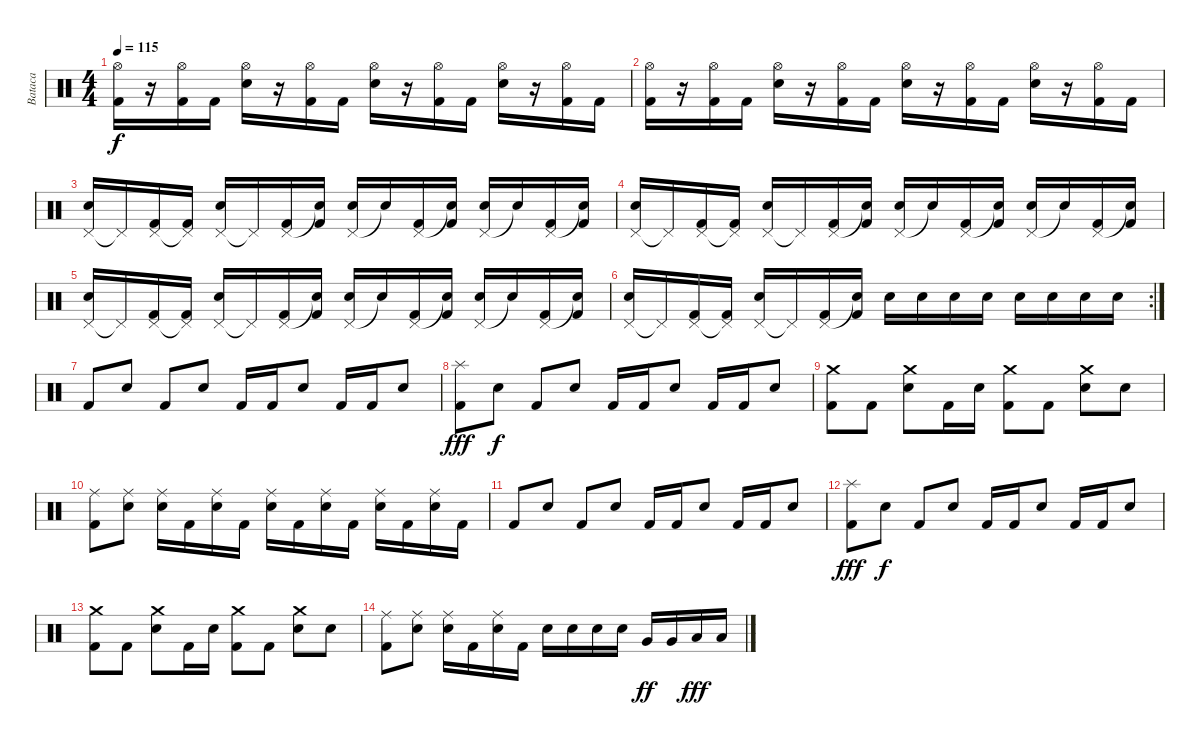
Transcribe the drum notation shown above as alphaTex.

\track ("Bataca" "Bataca") {instrument percussion}
\staff {score}
\articulation defaults
\ts (4 4)
\tempo 115
\clef neutral
\ks c
("Hi-Hat (open)" "Kick (hit) 2").16{dy f} r.16 ("Hi-Hat (open)" "Kick (hit) 2").16 "Kick (hit) 2".16 ("Hi-Hat (open)" "Electric Snare (hit)").16 r.16 ("Hi-Hat (open)" "Kick (hit) 2").16 "Kick (hit) 2".16 ("Hi-Hat (open)" "Electric Snare (hit)").16 r.16 ("Hi-Hat (open)" "Kick (hit) 2").16 "Kick (hit) 2".16 ("Hi-Hat (open)" "Electric Snare (hit)").16 r.16 ("Hi-Hat (open)" "Kick (hit) 2").16 "Kick (hit) 2".16 |
("Hi-Hat (open)" "Kick (hit) 2").16 r.16 ("Hi-Hat (open)" "Kick (hit) 2").16 "Kick (hit) 2".16 ("Hi-Hat (open)" "Electric Snare (hit)").16 r.16 ("Hi-Hat (open)" "Kick (hit) 2").16 "Kick (hit) 2".16 ("Hi-Hat (open)" "Electric Snare (hit)").16 r.16 ("Hi-Hat (open)" "Kick (hit) 2").16 "Kick (hit) 2".16 ("Hi-Hat (open)" "Electric Snare (hit)").16 r.16 ("Hi-Hat (open)" "Kick (hit) 2").16 "Kick (hit) 2".16 |
("Pedal Hi-Hat (hit)" "Electric Snare (hit)").16 "Pedal Hi-Hat (hit)"{t}.16 ("Pedal Hi-Hat (hit)" "Kick (hit) 2").16 ("Pedal Hi-Hat (hit)"{t} "Kick (hit) 2").16 ("Pedal Hi-Hat (hit)" "Electric Snare (hit)").16 "Pedal Hi-Hat (hit)"{t}.16 ("Pedal Hi-Hat (hit)" "Kick (hit) 2").16 ("Snare (hit)"{t} "Kick (hit) 2").16 ("Pedal Hi-Hat (hit)" "Electric Snare (hit)").16 "Snare (hit)"{t}.16 ("Pedal Hi-Hat (hit)" "Kick (hit) 2").16 ("Snare (hit)"{t} "Kick (hit) 2").16 ("Pedal Hi-Hat (hit)" "Electric Snare (hit)").16 "Snare (hit)"{t}.16 ("Pedal Hi-Hat (hit)" "Kick (hit) 2").16 ("Snare (hit)"{t} "Kick (hit) 2").16 |
("Pedal Hi-Hat (hit)" "Electric Snare (hit)").16 "Pedal Hi-Hat (hit)"{t}.16 ("Pedal Hi-Hat (hit)" "Kick (hit) 2").16 ("Pedal Hi-Hat (hit)"{t} "Kick (hit) 2").16 ("Pedal Hi-Hat (hit)" "Electric Snare (hit)").16 "Pedal Hi-Hat (hit)"{t}.16 ("Pedal Hi-Hat (hit)" "Kick (hit) 2").16 ("Snare (hit)"{t} "Kick (hit) 2").16 ("Pedal Hi-Hat (hit)" "Electric Snare (hit)").16 "Snare (hit)"{t}.16 ("Pedal Hi-Hat (hit)" "Kick (hit) 2").16 ("Snare (hit)"{t} "Kick (hit) 2").16 ("Pedal Hi-Hat (hit)" "Electric Snare (hit)").16 "Snare (hit)"{t}.16 ("Pedal Hi-Hat (hit)" "Kick (hit) 2").16 ("Snare (hit)"{t} "Kick (hit) 2").16 |
("Pedal Hi-Hat (hit)" "Electric Snare (hit)").16 "Pedal Hi-Hat (hit)"{t}.16 ("Pedal Hi-Hat (hit)" "Kick (hit) 2").16 ("Pedal Hi-Hat (hit)"{t} "Kick (hit) 2").16 ("Pedal Hi-Hat (hit)" "Electric Snare (hit)").16 "Pedal Hi-Hat (hit)"{t}.16 ("Pedal Hi-Hat (hit)" "Kick (hit) 2").16 ("Snare (hit)"{t} "Kick (hit) 2").16 ("Pedal Hi-Hat (hit)" "Electric Snare (hit)").16 "Snare (hit)"{t}.16 ("Pedal Hi-Hat (hit)" "Kick (hit) 2").16 ("Snare (hit)"{t} "Kick (hit) 2").16 ("Pedal Hi-Hat (hit)" "Electric Snare (hit)").16 "Snare (hit)"{t}.16 ("Pedal Hi-Hat (hit)" "Kick (hit) 2").16 ("Snare (hit)"{t} "Kick (hit) 2").16 |
\rc 2
("Pedal Hi-Hat (hit)" "Electric Snare (hit)").16 "Pedal Hi-Hat (hit)"{t}.16 ("Pedal Hi-Hat (hit)" "Kick (hit) 2").16 ("Pedal Hi-Hat (hit)"{t} "Kick (hit) 2").16 ("Pedal Hi-Hat (hit)" "Electric Snare (hit)").16 "Pedal Hi-Hat (hit)"{t}.16 ("Pedal Hi-Hat (hit)" "Kick (hit) 2").16 ("Snare (hit)"{t} "Kick (hit) 2").16 "Electric Snare (hit)".16 "Electric Snare (hit)".16 "Electric Snare (hit)".16 "Electric Snare (hit)".16 "Electric Snare (hit)".16 "Electric Snare (hit)".16 "Electric Snare (hit)".16 "Electric Snare (hit)".16 |
"Kick (hit) 2".8 "Electric Snare (hit)".8 "Kick (hit) 2".8 "Electric Snare (hit)".8 "Kick (hit) 2".16 "Kick (hit) 2".16 "Electric Snare (hit)".8 "Kick (hit) 2".16 "Kick (hit) 2".16 "Electric Snare (hit)".8 |
("Splash (hit)" "Kick (hit) 2").8{dy fff} "Electric Snare (hit)".8{dy f} "Kick (hit) 2".8 "Electric Snare (hit)".8 "Kick (hit) 2".16 "Kick (hit) 2".16 "Electric Snare (hit)".8 "Kick (hit) 2".16 "Kick (hit) 2".16 "Electric Snare (hit)".8 |
("Crash medium (hit)" "Kick (hit) 2").8 "Kick (hit) 2".8 ("Crash medium (hit)" "Electric Snare (hit)").8 "Kick (hit) 2".16 "Electric Snare (hit)".16 ("Crash medium (hit)" "Kick (hit) 2").8 "Kick (hit) 2".8 ("Crash medium (hit)" "Electric Snare (hit)").8 "Electric Snare (hit)".8 |
("Ride (middle)" "Kick (hit) 2").8 ("Ride (middle)" "Electric Snare (hit)").8 ("Ride (middle)" "Electric Snare (hit)").16 "Kick (hit) 2".16 ("Ride (middle)" "Electric Snare (hit)").16 "Kick (hit) 2".16 ("Ride (middle)" "Electric Snare (hit)").16 "Kick (hit) 2".16 ("Ride (middle)" "Electric Snare (hit)").16 "Kick (hit) 2".16 ("Ride (middle)" "Electric Snare (hit)").16 "Kick (hit) 2".16 ("Ride (middle)" "Electric Snare (hit)").16 "Kick (hit) 2".16 |
"Kick (hit) 2".8 "Electric Snare (hit)".8 "Kick (hit) 2".8 "Electric Snare (hit)".8 "Kick (hit) 2".16 "Kick (hit) 2".16 "Electric Snare (hit)".8 "Kick (hit) 2".16 "Kick (hit) 2".16 "Electric Snare (hit)".8 |
("Splash (hit)" "Kick (hit) 2").8{dy fff} "Electric Snare (hit)".8{dy f} "Kick (hit) 2".8 "Electric Snare (hit)".8 "Kick (hit) 2".16 "Kick (hit) 2".16 "Electric Snare (hit)".8 "Kick (hit) 2".16 "Kick (hit) 2".16 "Electric Snare (hit)".8 |
("Crash medium (hit)" "Kick (hit) 2").8 "Kick (hit) 2".8 ("Crash medium (hit)" "Electric Snare (hit)").8 "Kick (hit) 2".16 "Electric Snare (hit)".16 ("Crash medium (hit)" "Kick (hit) 2").8 "Kick (hit) 2".8 ("Crash medium (hit)" "Electric Snare (hit)").8 "Electric Snare (hit)".8 |
("Ride (middle)" "Kick (hit) 2").8 ("Ride (middle)" "Electric Snare (hit)").8 ("Ride (middle)" "Electric Snare (hit)").16 "Kick (hit) 2".16 ("Ride (middle)" "Electric Snare (hit)").16 "Kick (hit) 2".16 "Electric Snare (hit)".16 "Electric Snare (hit)".16 "Electric Snare (hit)".16 "Electric Snare (hit)".16 "Very Low Tom (hit)".16{dy ff} "Very Low Tom (hit)".16 "Low Tom (hit)".16{dy fff} "Low Tom (hit)".16
